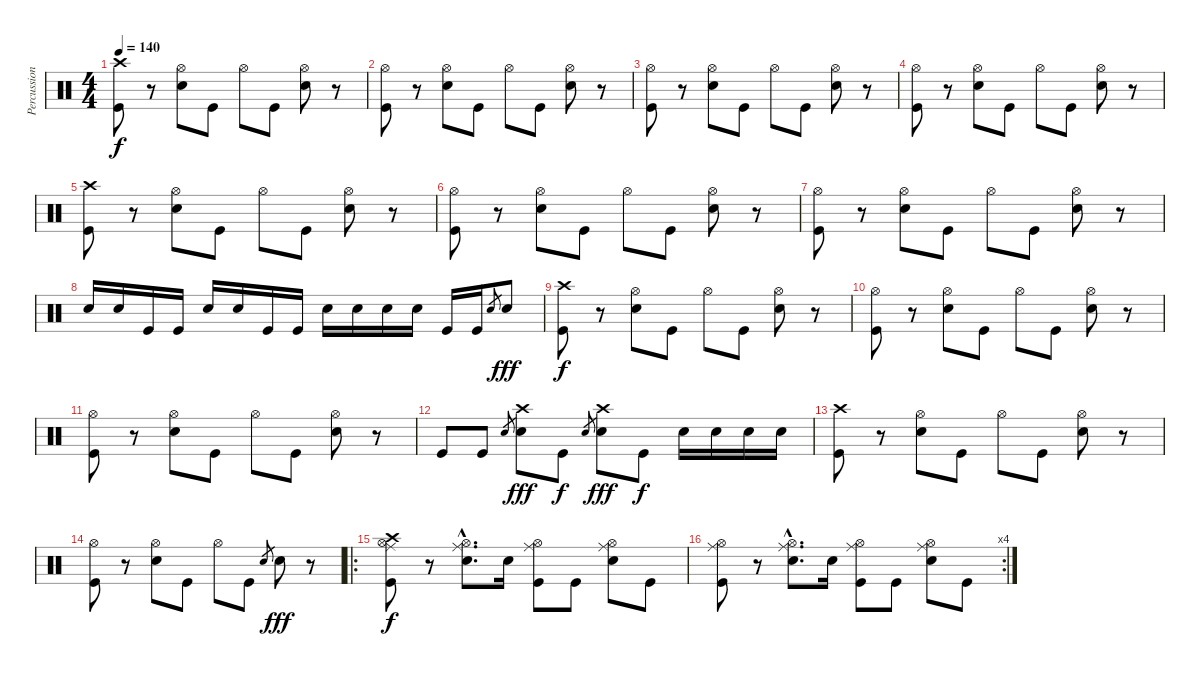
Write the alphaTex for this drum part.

\track ("Percussion" "Percussion") {instrument percussion}
\staff {score}
\articulation defaults
\ts (4 4)
\tempo 140
\clef neutral
\ks c
("Kick (hit)" "Crash high (hit)").8{dy f} r.8 ("Snare (hit) 2" "Hi-Hat (open)").8 "Kick (hit)".8 "Hi-Hat (open)".8 "Kick (hit)".8 ("Snare (hit) 2" "Hi-Hat (open)").8 r.8 |
("Kick (hit)" "Hi-Hat (open)").8 r.8 ("Snare (hit) 2" "Hi-Hat (open)").8 "Kick (hit)".8 "Hi-Hat (open)".8 "Kick (hit)".8 ("Snare (hit) 2" "Hi-Hat (open)").8 r.8 |
("Kick (hit)" "Hi-Hat (open)").8 r.8 ("Snare (hit) 2" "Hi-Hat (open)").8 "Kick (hit)".8 "Hi-Hat (open)".8 "Kick (hit)".8 ("Snare (hit) 2" "Hi-Hat (open)").8 r.8 |
("Kick (hit)" "Hi-Hat (open)").8 r.8 ("Snare (hit) 2" "Hi-Hat (open)").8 "Kick (hit)".8 "Hi-Hat (open)".8 "Kick (hit)".8 ("Snare (hit) 2" "Hi-Hat (open)").8 r.8 |
("Kick (hit)" "Crash high (hit)").8 r.8 ("Snare (hit) 2" "Hi-Hat (open)").8 "Kick (hit)".8 "Hi-Hat (open)".8 "Kick (hit)".8 ("Snare (hit) 2" "Hi-Hat (open)").8 r.8 |
("Kick (hit)" "Hi-Hat (open)").8 r.8 ("Snare (hit) 2" "Hi-Hat (open)").8 "Kick (hit)".8 "Hi-Hat (open)".8 "Kick (hit)".8 ("Snare (hit) 2" "Hi-Hat (open)").8 r.8 |
("Kick (hit)" "Hi-Hat (open)").8 r.8 ("Snare (hit) 2" "Hi-Hat (open)").8 "Kick (hit)".8 "Hi-Hat (open)".8 "Kick (hit)".8 ("Snare (hit) 2" "Hi-Hat (open)").8 r.8 |
"Snare (hit) 2".16 "Snare (hit) 2".16 "Kick (hit)".16 "Kick (hit)".16 "Snare (hit) 2".16 "Snare (hit) 2".16 "Kick (hit)".16 "Kick (hit)".16 "Snare (hit) 2".16 "Snare (hit) 2".16 "Snare (hit) 2".16 "Snare (hit) 2".16 "Kick (hit)".16 "Kick (hit)".16 "Snare (hit) 2".8{gr} "Snare (hit) 2".8{dy fff} |
("Kick (hit)" "Crash high (hit)").8{dy f} r.8 ("Snare (hit) 2" "Hi-Hat (open)").8 "Kick (hit)".8 "Hi-Hat (open)".8 "Kick (hit)".8 ("Snare (hit) 2" "Hi-Hat (open)").8 r.8 |
("Kick (hit)" "Hi-Hat (open)").8 r.8 ("Snare (hit) 2" "Hi-Hat (open)").8 "Kick (hit)".8 "Hi-Hat (open)".8 "Kick (hit)".8 ("Snare (hit) 2" "Hi-Hat (open)").8 r.8 |
("Kick (hit)" "Hi-Hat (open)").8 r.8 ("Snare (hit) 2" "Hi-Hat (open)").8 "Kick (hit)".8 "Hi-Hat (open)".8 "Kick (hit)".8 ("Snare (hit) 2" "Hi-Hat (open)").8 r.8 |
"Kick (hit)".8 "Kick (hit)".8 "Snare (hit) 2".8{gr} ("Snare (hit) 2" "Crash high (hit)").8{dy fff} "Kick (hit)".8{dy f} "Snare (hit) 2".8{gr} ("Snare (hit) 2" "Crash high (hit)").8{dy fff} "Kick (hit)".8{dy f} "Snare (hit) 2".16 "Snare (hit) 2".16 "Snare (hit) 2".16 "Snare (hit) 2".16 |
("Kick (hit)" "Crash high (hit)").8 r.8 ("Snare (hit) 2" "Hi-Hat (open)").8 "Kick (hit)".8 "Hi-Hat (open)".8 "Kick (hit)".8 ("Snare (hit) 2" "Hi-Hat (open)").8 r.8 |
("Kick (hit)" "Hi-Hat (open)").8 r.8 ("Snare (hit) 2" "Hi-Hat (open)").8 "Kick (hit)".8 "Hi-Hat (open)".8 "Kick (hit)".8 "Snare (hit) 2".8{gr} "Snare (hit) 2".8{dy fff} r.8 |
\ro
("Kick (hit)" "Ride (middle)" "Hi-Hat (open)" "Crash high (hit)").8{dy f} r.8 ("Snare (hit) 2"{hac} "Ride (middle)"{hac} "Hi-Hat (open)"{hac}).8{d} "Snare (hit) 2".16 ("Kick (hit)" "Ride (middle)" "Hi-Hat (open)").8 "Kick (hit)".8 ("Snare (hit) 2" "Ride (middle)" "Hi-Hat (open)").8 "Kick (hit)".8 |
\rc 4
("Kick (hit)" "Ride (middle)" "Hi-Hat (open)").8 r.8 ("Snare (hit) 2"{hac} "Ride (middle)"{hac} "Hi-Hat (open)"{hac}).8{d} "Snare (hit) 2".16 ("Kick (hit)" "Ride (middle)" "Hi-Hat (open)").8 "Kick (hit)".8 ("Snare (hit) 2" "Ride (middle)" "Hi-Hat (open)").8 "Kick (hit)".8
